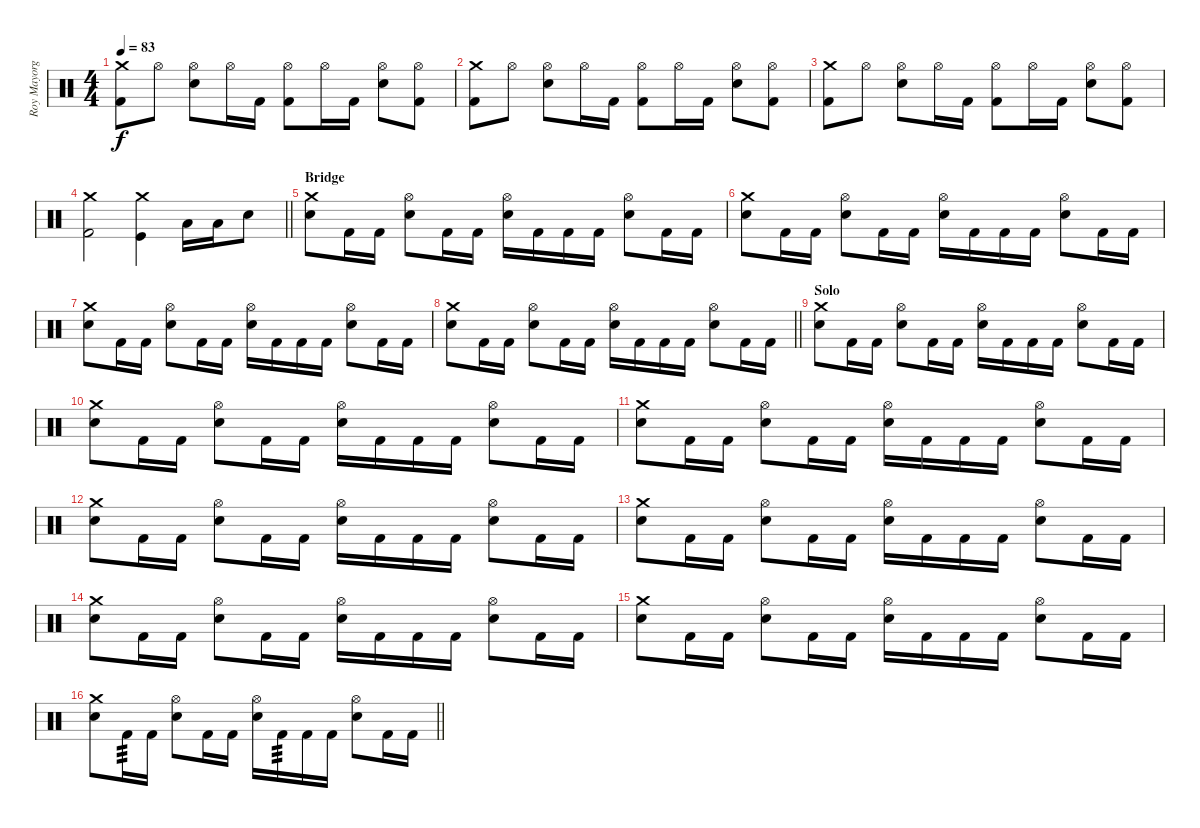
\track ("Roy Mayorga" "Roy Mayorg") {instrument percussion}
\staff {score}
\articulation defaults
\ts (4 4)
\tempo 83
\clef neutral
\ks c
("Crash medium (hit)" "Kick (hit) 2").8{dy f} "Hi-Hat (open)".8 ("Hi-Hat (open)" "Electric Snare (hit)").8 "Hi-Hat (open)".16 "Kick (hit) 2".16 ("Kick (hit) 2" "Hi-Hat (open)").8 "Hi-Hat (open)".16 "Kick (hit) 2".16 ("Electric Snare (hit)" "Hi-Hat (open)").8 ("Hi-Hat (open)" "Kick (hit) 2").8 |
("Crash medium (hit)" "Kick (hit) 2").8 "Hi-Hat (open)".8 ("Hi-Hat (open)" "Electric Snare (hit)").8 "Hi-Hat (open)".16 "Kick (hit) 2".16 ("Kick (hit) 2" "Hi-Hat (open)").8 "Hi-Hat (open)".16 "Kick (hit) 2".16 ("Electric Snare (hit)" "Hi-Hat (open)").8 ("Hi-Hat (open)" "Kick (hit) 2").8 |
("Crash medium (hit)" "Kick (hit) 2").8 "Hi-Hat (open)".8 ("Hi-Hat (open)" "Electric Snare (hit)").8 "Hi-Hat (open)".16 "Kick (hit) 2".16 ("Kick (hit) 2" "Hi-Hat (open)").8 "Hi-Hat (open)".16 "Kick (hit) 2".16 ("Electric Snare (hit)" "Hi-Hat (open)").8 ("Hi-Hat (open)" "Kick (hit) 2").8 |
\barLineRight lightlight
("Crash medium (hit)" "Kick (hit) 2").2 ("Crash medium (hit)" "Kick (hit)").4 "Low Floor Tom (hit)".16 "Low Floor Tom (hit)".16 "Electric Snare (hit)".8 |
\section ("" "Bridge")
("Electric Snare (hit)" "Crash medium (hit)").8 "Kick (hit) 2".16 "Kick (hit) 2".16 ("Electric Snare (hit)" "Hi-Hat (open)").8 "Kick (hit) 2".16 "Kick (hit) 2".16 ("Electric Snare (hit)" "Hi-Hat (open)").16 "Kick (hit) 2".16 "Kick (hit) 2".16 "Kick (hit) 2".16 ("Electric Snare (hit)" "Hi-Hat (open)").8 "Kick (hit) 2".16 "Kick (hit) 2".16 |
("Electric Snare (hit)" "Crash medium (hit)").8 "Kick (hit) 2".16 "Kick (hit) 2".16 ("Electric Snare (hit)" "Hi-Hat (open)").8 "Kick (hit) 2".16 "Kick (hit) 2".16 ("Electric Snare (hit)" "Hi-Hat (open)").16 "Kick (hit) 2".16 "Kick (hit) 2".16 "Kick (hit) 2".16 ("Electric Snare (hit)" "Hi-Hat (open)").8 "Kick (hit) 2".16 "Kick (hit) 2".16 |
("Electric Snare (hit)" "Crash medium (hit)").8 "Kick (hit) 2".16 "Kick (hit) 2".16 ("Electric Snare (hit)" "Hi-Hat (open)").8 "Kick (hit) 2".16 "Kick (hit) 2".16 ("Electric Snare (hit)" "Hi-Hat (open)").16 "Kick (hit) 2".16 "Kick (hit) 2".16 "Kick (hit) 2".16 ("Electric Snare (hit)" "Hi-Hat (open)").8 "Kick (hit) 2".16 "Kick (hit) 2".16 |
\barLineRight lightlight
("Electric Snare (hit)" "Crash medium (hit)").8 "Kick (hit) 2".16 "Kick (hit) 2".16 ("Electric Snare (hit)" "Hi-Hat (open)").8 "Kick (hit) 2".16 "Kick (hit) 2".16 ("Electric Snare (hit)" "Hi-Hat (open)").16 "Kick (hit) 2".16 "Kick (hit) 2".16 "Kick (hit) 2".16 ("Electric Snare (hit)" "Hi-Hat (open)").8 "Kick (hit) 2".16 "Kick (hit) 2".16 |
\section ("" "Solo")
("Electric Snare (hit)" "Crash medium (hit)").8 "Kick (hit) 2".16 "Kick (hit) 2".16 ("Electric Snare (hit)" "Hi-Hat (open)").8 "Kick (hit) 2".16 "Kick (hit) 2".16 ("Electric Snare (hit)" "Hi-Hat (open)").16 "Kick (hit) 2".16 "Kick (hit) 2".16 "Kick (hit) 2".16 ("Electric Snare (hit)" "Hi-Hat (open)").8 "Kick (hit) 2".16 "Kick (hit) 2".16 |
("Electric Snare (hit)" "Crash medium (hit)").8 "Kick (hit) 2".16 "Kick (hit) 2".16 ("Electric Snare (hit)" "Hi-Hat (open)").8 "Kick (hit) 2".16 "Kick (hit) 2".16 ("Electric Snare (hit)" "Hi-Hat (open)").16 "Kick (hit) 2".16 "Kick (hit) 2".16 "Kick (hit) 2".16 ("Electric Snare (hit)" "Hi-Hat (open)").8 "Kick (hit) 2".16 "Kick (hit) 2".16 |
("Electric Snare (hit)" "Crash medium (hit)").8 "Kick (hit) 2".16 "Kick (hit) 2".16 ("Electric Snare (hit)" "Hi-Hat (open)").8 "Kick (hit) 2".16 "Kick (hit) 2".16 ("Electric Snare (hit)" "Hi-Hat (open)").16 "Kick (hit) 2".16 "Kick (hit) 2".16 "Kick (hit) 2".16 ("Electric Snare (hit)" "Hi-Hat (open)").8 "Kick (hit) 2".16 "Kick (hit) 2".16 |
("Electric Snare (hit)" "Crash medium (hit)").8 "Kick (hit) 2".16 "Kick (hit) 2".16 ("Electric Snare (hit)" "Hi-Hat (open)").8 "Kick (hit) 2".16 "Kick (hit) 2".16 ("Electric Snare (hit)" "Hi-Hat (open)").16 "Kick (hit) 2".16 "Kick (hit) 2".16 "Kick (hit) 2".16 ("Electric Snare (hit)" "Hi-Hat (open)").8 "Kick (hit) 2".16 "Kick (hit) 2".16 |
("Electric Snare (hit)" "Crash medium (hit)").8 "Kick (hit) 2".16 "Kick (hit) 2".16 ("Electric Snare (hit)" "Hi-Hat (open)").8 "Kick (hit) 2".16 "Kick (hit) 2".16 ("Electric Snare (hit)" "Hi-Hat (open)").16 "Kick (hit) 2".16 "Kick (hit) 2".16 "Kick (hit) 2".16 ("Electric Snare (hit)" "Hi-Hat (open)").8 "Kick (hit) 2".16 "Kick (hit) 2".16 |
("Electric Snare (hit)" "Crash medium (hit)").8 "Kick (hit) 2".16 "Kick (hit) 2".16 ("Electric Snare (hit)" "Hi-Hat (open)").8 "Kick (hit) 2".16 "Kick (hit) 2".16 ("Electric Snare (hit)" "Hi-Hat (open)").16 "Kick (hit) 2".16 "Kick (hit) 2".16 "Kick (hit) 2".16 ("Electric Snare (hit)" "Hi-Hat (open)").8 "Kick (hit) 2".16 "Kick (hit) 2".16 |
("Electric Snare (hit)" "Crash medium (hit)").8 "Kick (hit) 2".16 "Kick (hit) 2".16 ("Electric Snare (hit)" "Hi-Hat (open)").8 "Kick (hit) 2".16 "Kick (hit) 2".16 ("Electric Snare (hit)" "Hi-Hat (open)").16 "Kick (hit) 2".16 "Kick (hit) 2".16 "Kick (hit) 2".16 ("Electric Snare (hit)" "Hi-Hat (open)").8 "Kick (hit) 2".16 "Kick (hit) 2".16 |
\barLineRight lightlight
("Electric Snare (hit)" "Crash medium (hit)").8 "Kick (hit) 2".16{tp 3} "Kick (hit) 2".16 ("Electric Snare (hit)" "Hi-Hat (open)").8 "Kick (hit) 2".16 "Kick (hit) 2".16 ("Electric Snare (hit)" "Hi-Hat (open)").16 "Kick (hit) 2".16{tp 3} "Kick (hit) 2".16 "Kick (hit) 2".16 ("Electric Snare (hit)" "Hi-Hat (open)").8 "Kick (hit) 2".16 "Kick (hit) 2".16
